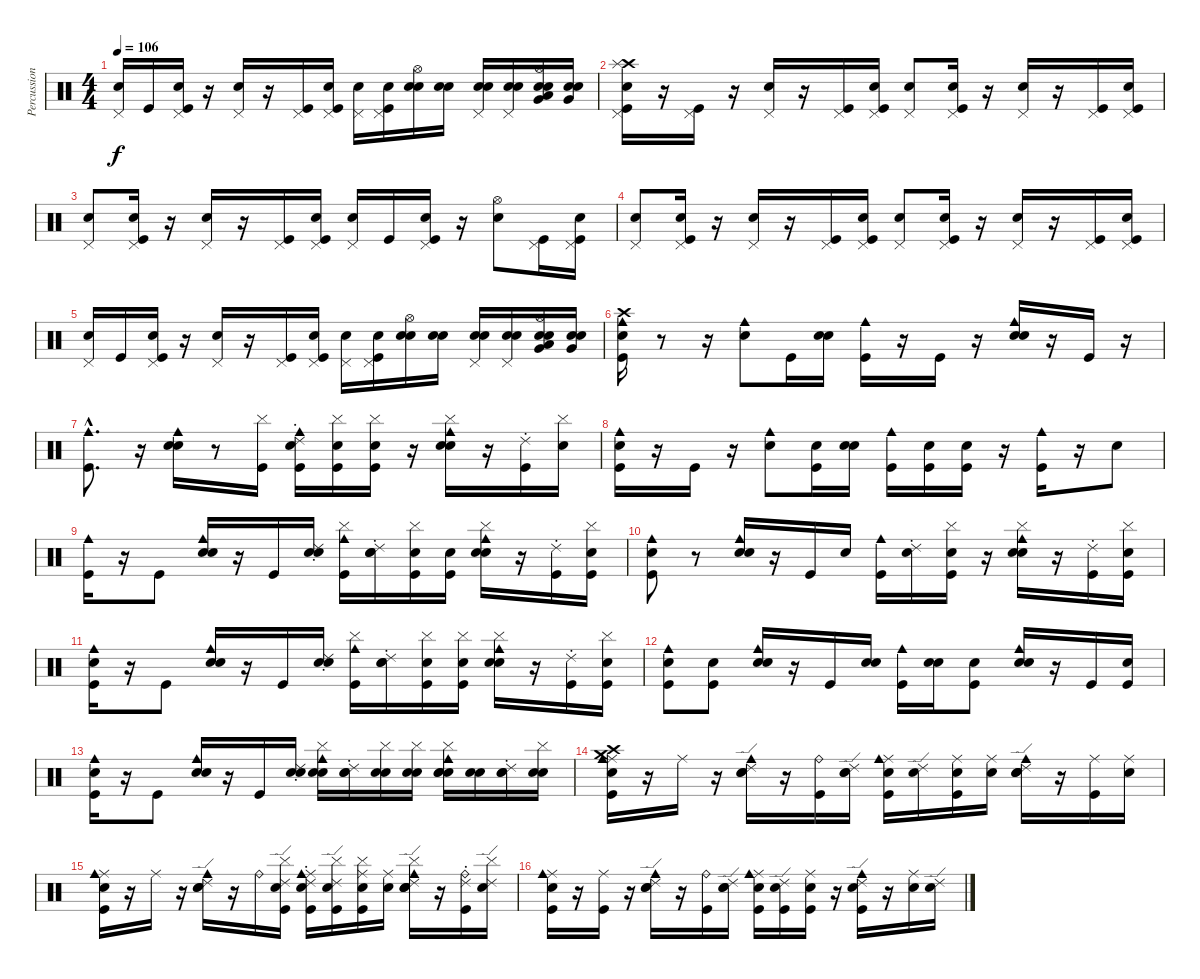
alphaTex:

\track ("Percussions (Zaac)" "Percussion") {instrument percussion}
\staff {score}
\articulation defaults
\ts (4 4)
\tempo 106
\clef neutral
\ks c
("Snare (hit)" "Pedal Hi-Hat (hit)").16{dy f} "Kick (hit)".16 ("Snare (hit)" "Kick (hit)" "Pedal Hi-Hat (hit)").16 r.16 ("Electric Snare (hit)" "Pedal Hi-Hat (hit)").16 r.16 ("Kick (hit)" "Pedal Hi-Hat (hit)").16 ("Snare (hit)" "Kick (hit)" "Pedal Hi-Hat (hit)").16 ("Snare (hit)" "Pedal Hi-Hat (hit)").16 ("Snare (hit)" "Kick (hit)" "Pedal Hi-Hat (hit)").16 ("Snare (hit)" "Electric Snare (hit)" "Hi-Hat (open)").16 ("Snare (hit)" "Electric Snare (hit)").16 ("Snare (hit)" "Electric Snare (hit)" "Pedal Hi-Hat (hit)").16 ("Snare (hit)" "Electric Snare (hit)" "Pedal Hi-Hat (hit)").16 ("Snare (hit)" "Electric Snare (hit)" "Very Low Tom (hit)" "Low Tom (hit)" "Hi-Hat (open)").16 ("Snare (hit)" "Electric Snare (hit)" "Very Low Tom (hit)").16 |
("Snare (hit)" "Kick (hit)" "Pedal Hi-Hat (hit)" "Crash high (hit)" "Splash (hit)").16 r.16 ("Kick (hit)" "Pedal Hi-Hat (hit)").16 r.16 ("Electric Snare (hit)" "Pedal Hi-Hat (hit)").16 r.16 ("Kick (hit)" "Pedal Hi-Hat (hit)").16 ("Snare (hit)" "Kick (hit)" "Pedal Hi-Hat (hit)").16 ("Snare (hit)" "Pedal Hi-Hat (hit)").8 ("Snare (hit)" "Kick (hit)" "Pedal Hi-Hat (hit)").16 r.16 ("Electric Snare (hit)" "Pedal Hi-Hat (hit)").16 r.16 ("Kick (hit)" "Pedal Hi-Hat (hit)").16 ("Snare (hit)" "Kick (hit)" "Pedal Hi-Hat (hit)").16 |
("Snare (hit)" "Pedal Hi-Hat (hit)").8 ("Snare (hit)" "Kick (hit)" "Pedal Hi-Hat (hit)").16 r.16 ("Electric Snare (hit)" "Pedal Hi-Hat (hit)").16 r.16 ("Kick (hit)" "Pedal Hi-Hat (hit)").16 ("Snare (hit)" "Kick (hit)" "Pedal Hi-Hat (hit)").16 ("Snare (hit)" "Pedal Hi-Hat (hit)").16 "Kick (hit)".16 ("Snare (hit)" "Kick (hit)" "Pedal Hi-Hat (hit)").16 r.16 ("Electric Snare (hit)" "Hi-Hat (open)").8 ("Kick (hit)" "Pedal Hi-Hat (hit)").16 ("Snare (hit)" "Kick (hit)" "Pedal Hi-Hat (hit)").16 |
("Snare (hit)" "Pedal Hi-Hat (hit)").8 ("Snare (hit)" "Kick (hit)" "Pedal Hi-Hat (hit)").16 r.16 ("Electric Snare (hit)" "Pedal Hi-Hat (hit)").16 r.16 ("Kick (hit)" "Pedal Hi-Hat (hit)").16 ("Snare (hit)" "Kick (hit)" "Pedal Hi-Hat (hit)").16 ("Snare (hit)" "Pedal Hi-Hat (hit)").8 ("Snare (hit)" "Kick (hit)" "Pedal Hi-Hat (hit)").16 r.16 ("Electric Snare (hit)" "Pedal Hi-Hat (hit)").16 r.16 ("Kick (hit)" "Pedal Hi-Hat (hit)").16 ("Snare (hit)" "Kick (hit)" "Pedal Hi-Hat (hit)").16 |
("Snare (hit)" "Pedal Hi-Hat (hit)").16 "Kick (hit)".16 ("Snare (hit)" "Kick (hit)" "Pedal Hi-Hat (hit)").16 r.16 ("Electric Snare (hit)" "Pedal Hi-Hat (hit)").16 r.16 ("Kick (hit)" "Pedal Hi-Hat (hit)").16 ("Snare (hit)" "Kick (hit)" "Pedal Hi-Hat (hit)").16 ("Snare (hit)" "Pedal Hi-Hat (hit)").16 ("Snare (hit)" "Kick (hit)" "Pedal Hi-Hat (hit)").16 ("Snare (hit)" "Electric Snare (hit)" "Hi-Hat (open)").16 ("Snare (hit)" "Electric Snare (hit)").16 ("Snare (hit)" "Electric Snare (hit)" "Pedal Hi-Hat (hit)").16 ("Snare (hit)" "Electric Snare (hit)" "Pedal Hi-Hat (hit)").16 ("Snare (hit)" "Electric Snare (hit)" "Very Low Tom (hit)" "Low Tom (hit)" "Hi-Hat (open)").16 ("Snare (hit)" "Electric Snare (hit)" "Very Low Tom (hit)").16 |
("Snare (hit)" "Kick (hit)" "Crash high (hit)" "Cowbell medium (hit)").16 r.8 r.16 ("Electric Snare (hit)" "Cowbell medium (hit)").8 "Kick (hit)".16 ("Snare (hit)" "Electric Snare (hit)").16 ("Kick (hit)" "Cowbell medium (hit)").16 r.16 "Kick (hit)".16 r.16 ("Hand Clap (hit)" "Electric Snare (hit)" "Cowbell medium (hit)").16 r.16 "Kick (hit)".16 r.16 |
("Kick (hit)"{hac} "Cowbell medium (hit)"{hac}).8{d} r.16 ("Hand Clap (hit)" "Electric Snare (hit)" "Cowbell medium (hit)").16 r.8 ("Cymbal (hit)" "Kick (hit)").16 ("Snare (hit)" "Ride (choke) 2" "Kick (hit)" "Cowbell medium (hit)").16 ("Snare (hit)" "Cymbal (hit)" "Kick (hit)").16 ("Snare (hit)" "Cymbal (hit)" "Kick (hit)").16 r.16 ("Hand Clap (hit)" "Cymbal (hit)" "Electric Snare (hit)" "Cowbell medium (hit)").16 r.16 ("Ride (choke) 2" "Kick (hit)").16 ("Snare (hit)" "Cymbal (hit)").16 |
("Snare (hit)" "Kick (hit)" "Cowbell medium (hit)").16 r.16 "Kick (hit)".16 r.16 ("Electric Snare (hit)" "Cowbell medium (hit)").8 ("Snare (hit)" "Kick (hit)").16 ("Snare (hit)" "Electric Snare (hit)").16 ("Kick (hit)" "Cowbell medium (hit)").16 ("Snare (hit)" "Kick (hit)").16 ("Snare (hit)" "Kick (hit)").16 r.16 ("Kick (hit)" "Cowbell medium (hit)").16 r.16 "Electric Snare (hit)".8 |
("Kick (hit)" "Cowbell medium (hit)").16 r.16 "Kick (hit)".8 ("Hand Clap (hit)" "Electric Snare (hit)" "Cowbell medium (hit)").16 r.16 "Kick (hit)".16 ("Snare (hit)" "Ride (choke) 2" "Electric Snare (hit)").16 ("Cymbal (hit)" "Kick (hit)" "Cowbell medium (hit)").16 ("Snare (hit)" "Ride (choke) 2" "Electric Snare (hit)").16 ("Snare (hit)" "Cymbal (hit)" "Kick (hit)").16 ("Snare (hit)" "Kick (hit)").16 ("Hand Clap (hit)" "Cymbal (hit)" "Electric Snare (hit)" "Cowbell medium (hit)").16 r.16 ("Ride (choke) 2" "Kick (hit)").16 ("Snare (hit)" "Cymbal (hit)" "Kick (hit)").16 |
("Snare (hit)" "Kick (hit)" "Cowbell medium (hit)").8 r.8 ("Hand Clap (hit)" "Electric Snare (hit)" "Cowbell medium (hit)").16 r.16 "Kick (hit)".16 "Electric Snare (hit)".16 ("Kick (hit)" "Cowbell medium (hit)").16 ("Snare (hit)" "Ride (choke) 2").16 ("Snare (hit)" "Cymbal (hit)" "Kick (hit)").16 r.16 ("Hand Clap (hit)" "Cymbal (hit)" "Electric Snare (hit)" "Cowbell medium (hit)").16 r.16 ("Ride (choke) 2" "Kick (hit)").16 ("Snare (hit)" "Cymbal (hit)" "Kick (hit)").16 |
("Snare (hit)" "Kick (hit)" "Cowbell medium (hit)").16 r.16 "Kick (hit)".8 ("Hand Clap (hit)" "Electric Snare (hit)" "Cowbell medium (hit)").16 r.16 "Kick (hit)".16 ("Snare (hit)" "Ride (choke) 2" "Electric Snare (hit)").16 ("Cymbal (hit)" "Kick (hit)" "Cowbell medium (hit)").16 ("Snare (hit)" "Ride (choke) 2" "Electric Snare (hit)").16 ("Snare (hit)" "Cymbal (hit)" "Kick (hit)").16 ("Snare (hit)" "Cymbal (hit)" "Kick (hit)").16 ("Hand Clap (hit)" "Cymbal (hit)" "Electric Snare (hit)" "Cowbell medium (hit)").16 r.16 ("Ride (choke) 2" "Kick (hit)").16 ("Snare (hit)" "Cymbal (hit)" "Kick (hit)").16 |
("Snare (hit)" "Kick (hit)" "Cowbell medium (hit)").8 ("Snare (hit)" "Kick (hit)").8 ("Hand Clap (hit)" "Electric Snare (hit)" "Cowbell medium (hit)").16 r.16 "Kick (hit)".16 ("Snare (hit)" "Electric Snare (hit)").16 ("Kick (hit)" "Cowbell medium (hit)").16 ("Snare (hit)" "Electric Snare (hit)").16 ("Snare (hit)" "Kick (hit)").8 ("Hand Clap (hit)" "Electric Snare (hit)" "Cowbell medium (hit)").16 r.16 "Kick (hit)".16 ("Snare (hit)" "Kick (hit)").16 |
("Snare (hit)" "Kick (hit)" "Cowbell medium (hit)").16 r.16 "Kick (hit)".8 ("Hand Clap (hit)" "Electric Snare (hit)" "Cowbell medium (hit)").16 r.16 "Kick (hit)".16 ("Snare (hit)" "Ride (choke) 2" "Electric Snare (hit)").16 ("Snare (hit)" "Cymbal (hit)" "Electric Snare (hit)" "Cowbell medium (hit)").16 ("Snare (hit)" "Ride (choke) 2" "Electric Snare (hit)").16 ("Snare (hit)" "Cymbal (hit)" "Electric Snare (hit)").16 ("Snare (hit)" "Cymbal (hit)" "Electric Snare (hit)").16 ("Snare (hit)" "Hand Clap (hit)" "Cymbal (hit)" "Electric Snare (hit)" "Cowbell medium (hit)").16 ("Snare (hit)" "Electric Snare (hit)").16 ("Snare (hit)" "Ride (choke) 2" "Electric Snare (hit)").16 ("Snare (hit)" "Cymbal (hit)" "Electric Snare (hit)").16 |
("Snare (hit)" "Kick (hit)" "Crash high (hit)" "Ride (middle)" "Cowbell medium (hit)" "Crash medium (hit)").16 r.16 "Ride (middle)".16 r.16 ("Hand Clap (hit)" "Electric Snare (hit)" "Cowbell medium (hit)" "Ride (edge) 2").16 r.16 ("Kick (hit)" "Ride (bell)").16 ("Snare (hit)" "Electric Snare (hit)" "Ride (edge) 2").16 ("Snare (hit)" "Kick (hit)" "Ride (middle)" "Cowbell medium (hit)").16 ("Snare (hit)" "Ride (edge) 2").16 ("Snare (hit)" "Kick (hit)" "Ride (middle)").16 ("Snare (hit)" "Ride (middle)").16 ("Snare (hit)" "Hand Clap (hit)" "Electric Snare (hit)" "Cowbell medium (hit)" "Ride (edge) 2").16 r.16 ("Kick (hit)" "Ride (middle)").16 ("Snare (hit)" "Ride (middle)").16 |
("Snare (hit)" "Kick (hit)" "Ride (middle)" "Cowbell medium (hit)").16 r.16 "Ride (middle)".16 r.16 ("Hand Clap (hit)" "Electric Snare (hit)" "Cowbell medium (hit)" "Ride (edge) 2").16 r.16 "Ride (bell)".16 ("Snare (hit)" "Cymbal (hit)" "Kick (hit)" "Ride (edge) 2").16 ("Snare (hit)" "Ride (choke) 2" "Kick (hit)" "Ride (middle)" "Cowbell medium (hit)").16 ("Snare (hit)" "Cymbal (hit)" "Kick (hit)" "Ride (edge) 2").16 ("Snare (hit)" "Cymbal (hit)" "Kick (hit)" "Ride (middle)").16 ("Snare (hit)" "Ride (middle)").16 ("Snare (hit)" "Hand Clap (hit)" "Cymbal (hit)" "Electric Snare (hit)" "Cowbell medium (hit)" "Ride (edge) 2").16 r.16 ("Ride (choke) 2" "Kick (hit)" "Ride (bell)").16 ("Snare (hit)" "Cymbal (hit)" "Ride (edge) 2").16 |
("Snare (hit)" "Kick (hit)" "Ride (middle)" "Cowbell medium (hit)").16 r.16 ("Kick (hit)" "Ride (middle)").16 r.16 ("Hand Clap (hit)" "Electric Snare (hit)" "Cowbell medium (hit)" "Ride (edge) 2").16 r.16 ("Kick (hit)" "Ride (bell)").16 ("Snare (hit)" "Electric Snare (hit)" "Ride (edge) 2").16 ("Snare (hit)" "Kick (hit)" "Ride (middle)" "Cowbell medium (hit)").16 ("Snare (hit)" "Kick (hit)" "Ride (edge) 2").16 ("Snare (hit)" "Kick (hit)" "Ride (middle)").16 r.16 ("Hand Clap (hit)" "Kick (hit)" "Cowbell medium (hit)" "Ride (edge) 2").16 r.16 ("Electric Snare (hit)" "Ride (middle)").16 ("Snare (hit)" "Ride (edge) 2").16
